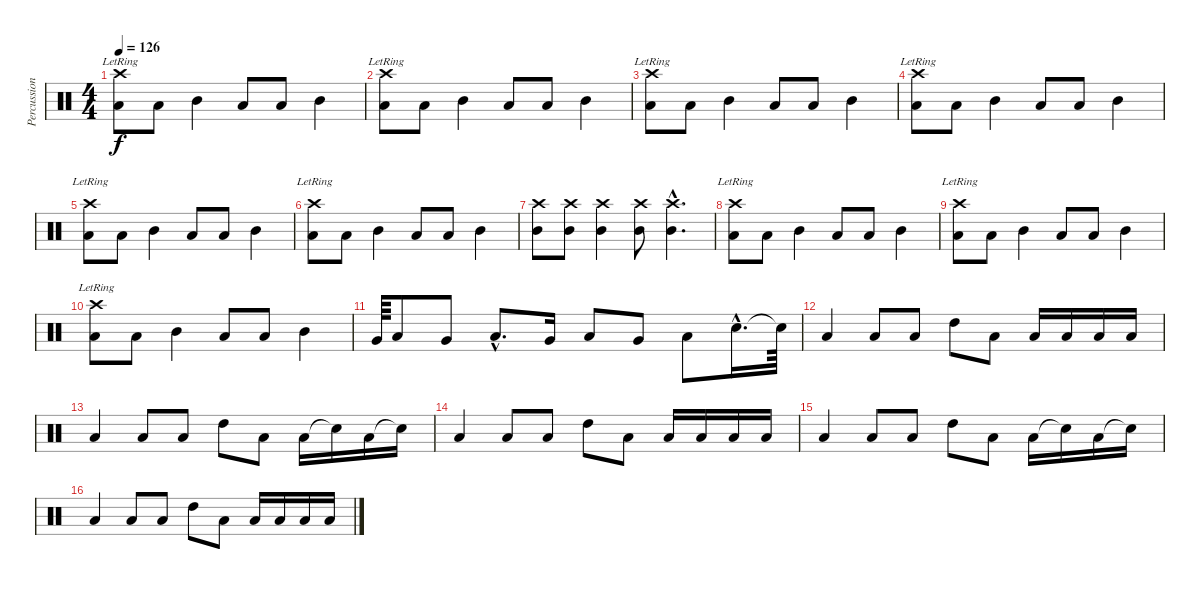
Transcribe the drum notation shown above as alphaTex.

\track ("Percussion" "Percussion") {instrument percussion}
\staff {score}
\articulation defaults
\ts (4 4)
\tempo 126
\clef neutral
\ks c
("Low Floor Tom (hit)" "Crash high (hit)"{lr}).8{dy f} "Low Floor Tom (hit)".8 "Mid Tom (hit)".4 "Low Floor Tom (hit)".8 "Low Floor Tom (hit)".8 "Mid Tom (hit)".4 |
("Low Floor Tom (hit)" "Crash high (hit)"{lr}).8 "Low Floor Tom (hit)".8 "Mid Tom (hit)".4 "Low Floor Tom (hit)".8 "Low Floor Tom (hit)".8 "Mid Tom (hit)".4 |
("Low Floor Tom (hit)" "Crash high (hit)"{lr}).8 "Low Floor Tom (hit)".8 "Mid Tom (hit)".4 "Low Floor Tom (hit)".8 "Low Floor Tom (hit)".8 "Mid Tom (hit)".4 |
("Low Floor Tom (hit)" "Crash high (hit)"{lr}).8 "Low Floor Tom (hit)".8 "Mid Tom (hit)".4 "Low Floor Tom (hit)".8 "Low Floor Tom (hit)".8 "Mid Tom (hit)".4 |
("Low Floor Tom (hit)" "Crash high (hit)"{lr}).8 "Low Floor Tom (hit)".8 "Mid Tom (hit)".4 "Low Floor Tom (hit)".8 "Low Floor Tom (hit)".8 "Mid Tom (hit)".4 |
("Low Floor Tom (hit)" "Crash high (hit)"{lr}).8 "Low Floor Tom (hit)".8 "Mid Tom (hit)".4 "Low Floor Tom (hit)".8 "Low Floor Tom (hit)".8 "Mid Tom (hit)".4 |
("Mid Tom (hit)" "Crash high (hit)").8 ("Mid Tom (hit)" "Crash high (hit)").8 ("Mid Tom (hit)" "Crash high (hit)").4 ("Mid Tom (hit)" "Crash high (hit)").8 ("Mid Tom (hit)"{hac} "Crash high (hit)"{hac}).4{d} |
("Low Floor Tom (hit)" "Crash high (hit)"{lr}).8 "Low Floor Tom (hit)".8 "Mid Tom (hit)".4 "Low Floor Tom (hit)".8 "Low Floor Tom (hit)".8 "Mid Tom (hit)".4 |
("Low Floor Tom (hit)" "Crash high (hit)"{lr}).8 "Low Floor Tom (hit)".8 "Mid Tom (hit)".4 "Low Floor Tom (hit)".8 "Low Floor Tom (hit)".8 "Mid Tom (hit)".4 |
("Low Floor Tom (hit)" "Crash high (hit)"{lr}).8 "Low Floor Tom (hit)".8 "Mid Tom (hit)".4 "Low Floor Tom (hit)".8 "Low Floor Tom (hit)".8 "Mid Tom (hit)".4 |
"Very Low Tom (hit)".64 "Low Tom (hit)".8 "Very Low Tom (hit)".8 "Low Floor Tom (hit)"{hac}.8{d} "Very Low Tom (hit)".16 "Low Tom (hit)".8 "Very Low Tom (hit)".8 "Low Floor Tom (hit)".8 "Electric Snare (hit)"{hac}.16{d} "Snare (hit)"{t}.64 |
"Low Tom (hit)".4 "Low Tom (hit)".8 "Low Tom (hit)".8 "High Tom (hit)".8 "Low Tom (hit)".8 "Low Tom (hit)".16 "Low Tom (hit)".16 "Low Tom (hit)".16 "Low Tom (hit)".16 |
"Low Tom (hit)".4 "Low Tom (hit)".8 "Low Tom (hit)".8 "High Tom (hit)".8 "Low Tom (hit)".8 "Low Tom (hit)".16 "Snare (hit)"{t}.16 "Low Tom (hit)".16 "Snare (hit)"{t}.16 |
"Low Tom (hit)".4 "Low Tom (hit)".8 "Low Tom (hit)".8 "High Tom (hit)".8 "Low Tom (hit)".8 "Low Tom (hit)".16 "Low Tom (hit)".16 "Low Tom (hit)".16 "Low Tom (hit)".16 |
"Low Tom (hit)".4 "Low Tom (hit)".8 "Low Tom (hit)".8 "High Tom (hit)".8 "Low Tom (hit)".8 "Low Tom (hit)".16 "Snare (hit)"{t}.16 "Low Tom (hit)".16 "Snare (hit)"{t}.16 |
"Low Tom (hit)".4 "Low Tom (hit)".8 "Low Tom (hit)".8 "High Tom (hit)".8 "Low Tom (hit)".8 "Low Tom (hit)".16 "Low Tom (hit)".16 "Low Tom (hit)".16 "Low Tom (hit)".16
